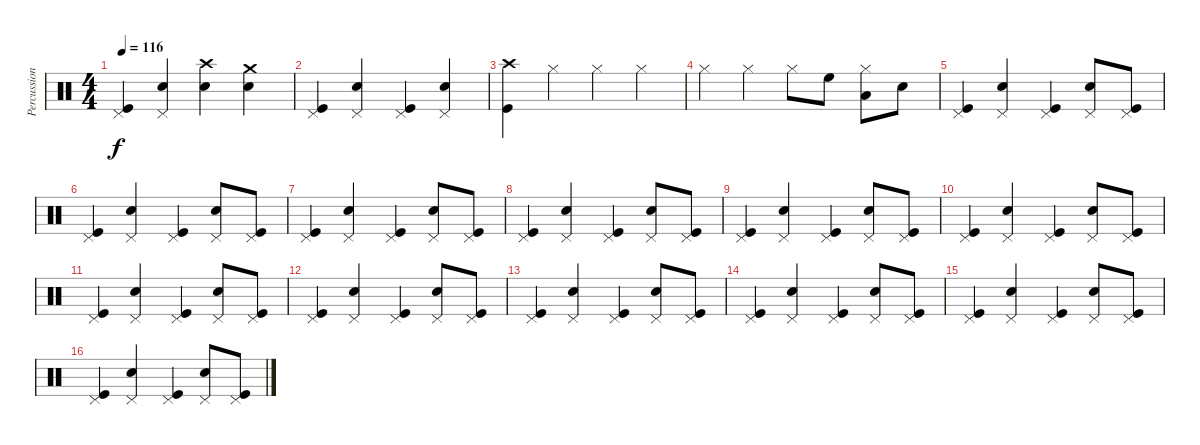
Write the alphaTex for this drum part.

\track ("Percussions" "Percussion") {instrument percussion}
\staff {score}
\articulation defaults
\ts (4 4)
\tempo 116
\clef neutral
\ks c
("Pedal Hi-Hat (hit)" "Kick (hit)").4{dy f} ("Pedal Hi-Hat (hit)" "Electric Snare (hit)").4 ("Electric Snare (hit)" "Crash high (hit)").4 ("Crash medium (hit)" "Electric Snare (hit)").4 |
("Pedal Hi-Hat (hit)" "Kick (hit)").4 ("Pedal Hi-Hat (hit)" "Electric Snare (hit)").4 ("Pedal Hi-Hat (hit)" "Kick (hit)").4 ("Pedal Hi-Hat (hit)" "Electric Snare (hit)").4 |
("Crash high (hit)" "Kick (hit)").4 "Hi-Hat (closed)".4 "Hi-Hat (closed)".4 "Hi-Hat (closed)".4 |
"Hi-Hat (closed)".4 "Hi-Hat (closed)".4 "Hi-Hat (closed)".8 "High Floor Tom (hit)".8 ("Low Tom (hit)" "Hi-Hat (closed)").8 "Electric Snare (hit)".8 |
("Pedal Hi-Hat (hit)" "Kick (hit)").4 ("Pedal Hi-Hat (hit)" "Electric Snare (hit)").4 ("Pedal Hi-Hat (hit)" "Kick (hit)").4 ("Pedal Hi-Hat (hit)" "Electric Snare (hit)").8 ("Pedal Hi-Hat (hit)" "Kick (hit)").8 |
("Pedal Hi-Hat (hit)" "Kick (hit)").4 ("Pedal Hi-Hat (hit)" "Electric Snare (hit)").4 ("Pedal Hi-Hat (hit)" "Kick (hit)").4 ("Pedal Hi-Hat (hit)" "Electric Snare (hit)").8 ("Pedal Hi-Hat (hit)" "Kick (hit)").8 |
("Pedal Hi-Hat (hit)" "Kick (hit)").4 ("Pedal Hi-Hat (hit)" "Electric Snare (hit)").4 ("Pedal Hi-Hat (hit)" "Kick (hit)").4 ("Pedal Hi-Hat (hit)" "Electric Snare (hit)").8 ("Pedal Hi-Hat (hit)" "Kick (hit)").8 |
("Pedal Hi-Hat (hit)" "Kick (hit)").4 ("Pedal Hi-Hat (hit)" "Electric Snare (hit)").4 ("Pedal Hi-Hat (hit)" "Kick (hit)").4 ("Pedal Hi-Hat (hit)" "Electric Snare (hit)").8 ("Pedal Hi-Hat (hit)" "Kick (hit)").8 |
("Pedal Hi-Hat (hit)" "Kick (hit)").4 ("Pedal Hi-Hat (hit)" "Electric Snare (hit)").4 ("Pedal Hi-Hat (hit)" "Kick (hit)").4 ("Pedal Hi-Hat (hit)" "Electric Snare (hit)").8 ("Pedal Hi-Hat (hit)" "Kick (hit)").8 |
("Pedal Hi-Hat (hit)" "Kick (hit)").4 ("Pedal Hi-Hat (hit)" "Electric Snare (hit)").4 ("Pedal Hi-Hat (hit)" "Kick (hit)").4 ("Pedal Hi-Hat (hit)" "Electric Snare (hit)").8 ("Pedal Hi-Hat (hit)" "Kick (hit)").8 |
("Pedal Hi-Hat (hit)" "Kick (hit)").4 ("Pedal Hi-Hat (hit)" "Electric Snare (hit)").4 ("Pedal Hi-Hat (hit)" "Kick (hit)").4 ("Pedal Hi-Hat (hit)" "Electric Snare (hit)").8 ("Pedal Hi-Hat (hit)" "Kick (hit)").8 |
("Pedal Hi-Hat (hit)" "Kick (hit)").4 ("Pedal Hi-Hat (hit)" "Electric Snare (hit)").4 ("Pedal Hi-Hat (hit)" "Kick (hit)").4 ("Pedal Hi-Hat (hit)" "Electric Snare (hit)").8 ("Pedal Hi-Hat (hit)" "Kick (hit)").8 |
("Pedal Hi-Hat (hit)" "Kick (hit)").4 ("Pedal Hi-Hat (hit)" "Electric Snare (hit)").4 ("Pedal Hi-Hat (hit)" "Kick (hit)").4 ("Pedal Hi-Hat (hit)" "Electric Snare (hit)").8 ("Pedal Hi-Hat (hit)" "Kick (hit)").8 |
("Pedal Hi-Hat (hit)" "Kick (hit)").4 ("Pedal Hi-Hat (hit)" "Electric Snare (hit)").4 ("Pedal Hi-Hat (hit)" "Kick (hit)").4 ("Pedal Hi-Hat (hit)" "Electric Snare (hit)").8 ("Pedal Hi-Hat (hit)" "Kick (hit)").8 |
("Pedal Hi-Hat (hit)" "Kick (hit)").4 ("Pedal Hi-Hat (hit)" "Electric Snare (hit)").4 ("Pedal Hi-Hat (hit)" "Kick (hit)").4 ("Pedal Hi-Hat (hit)" "Electric Snare (hit)").8 ("Pedal Hi-Hat (hit)" "Kick (hit)").8 |
("Pedal Hi-Hat (hit)" "Kick (hit)").4 ("Pedal Hi-Hat (hit)" "Electric Snare (hit)").4 ("Pedal Hi-Hat (hit)" "Kick (hit)").4 ("Pedal Hi-Hat (hit)" "Electric Snare (hit)").8 ("Pedal Hi-Hat (hit)" "Kick (hit)").8
